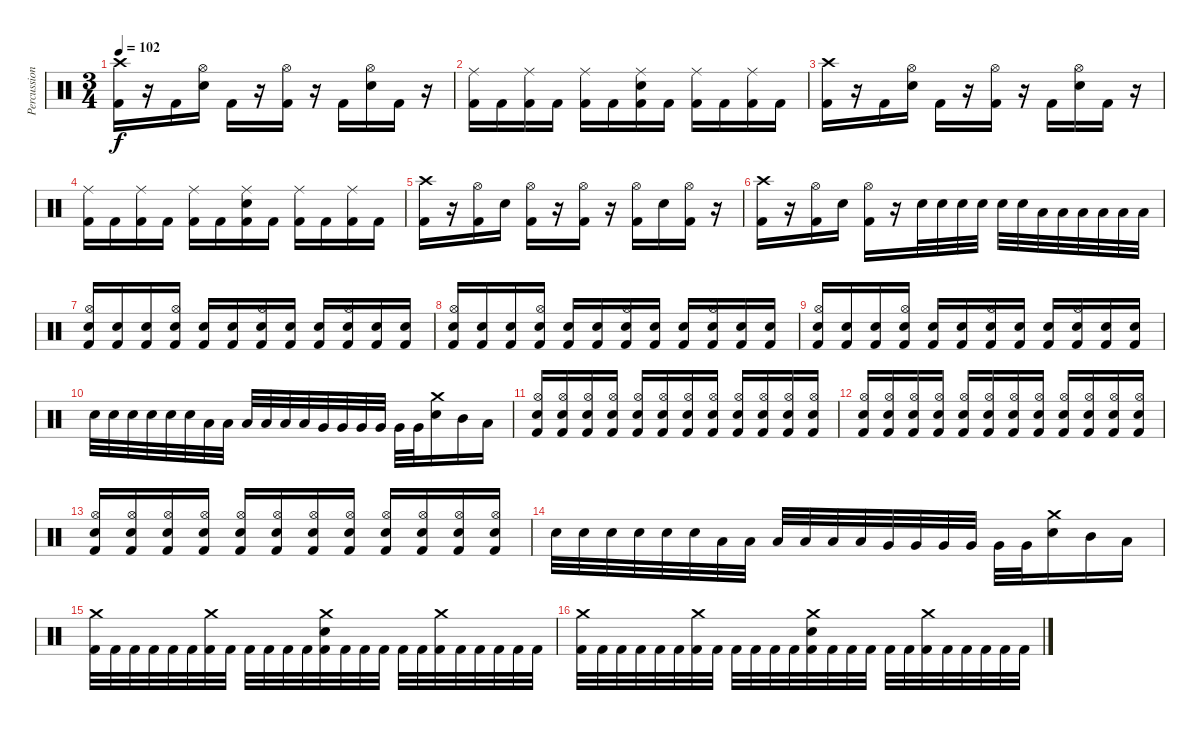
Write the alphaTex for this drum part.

\track ("Percussion" "Percussion") {instrument percussion}
\staff {score}
\articulation defaults
\ts (3 4)
\tempo 102
\clef neutral
\ks c
("Crash high (hit)" "Kick (hit) 2").16{dy f} r.16 "Kick (hit) 2".16 ("Hi-Hat (open)" "Electric Snare (hit)").16 "Kick (hit) 2".16 r.16 ("Hi-Hat (open)" "Kick (hit) 2").16 r.16 "Kick (hit) 2".16 ("Hi-Hat (open)" "Electric Snare (hit)").16 "Kick (hit) 2".16 r.16 |
("Ride (middle)" "Kick (hit) 2").16 "Kick (hit) 2".16 ("Ride (middle)" "Kick (hit) 2").16 "Kick (hit) 2".16 ("Ride (middle)" "Kick (hit) 2").16 "Kick (hit) 2".16 ("Ride (middle)" "Electric Snare (hit)" "Kick (hit) 2").16 "Kick (hit) 2".16 ("Ride (middle)" "Kick (hit) 2").16 "Kick (hit) 2".16 ("Ride (middle)" "Kick (hit) 2").16 "Kick (hit) 2".16 |
("Crash high (hit)" "Kick (hit) 2").16 r.16 "Kick (hit) 2".16 ("Hi-Hat (open)" "Electric Snare (hit)").16 "Kick (hit) 2".16 r.16 ("Hi-Hat (open)" "Kick (hit) 2").16 r.16 "Kick (hit) 2".16 ("Hi-Hat (open)" "Electric Snare (hit)").16 "Kick (hit) 2".16 r.16 |
("Ride (middle)" "Kick (hit) 2").16 "Kick (hit) 2".16 ("Ride (middle)" "Kick (hit) 2").16 "Kick (hit) 2".16 ("Ride (middle)" "Kick (hit) 2").16 "Kick (hit) 2".16 ("Ride (middle)" "Electric Snare (hit)" "Kick (hit) 2").16 "Kick (hit) 2".16 ("Ride (middle)" "Kick (hit) 2").16 "Kick (hit) 2".16 ("Ride (middle)" "Kick (hit) 2").16 "Kick (hit) 2".16 |
("Crash high (hit)" "Kick (hit) 2").16 r.16 ("Hi-Hat (open)" "Kick (hit) 2").16 "Electric Snare (hit)".16 ("Hi-Hat (open)" "Kick (hit) 2").16 r.16 ("Hi-Hat (open)" "Kick (hit) 2").16 r.16 ("Hi-Hat (open)" "Kick (hit) 2").16 "Electric Snare (hit)".16 ("Hi-Hat (open)" "Kick (hit) 2").16 r.16 |
("Crash high (hit)" "Kick (hit) 2").16 r.16 ("Hi-Hat (open)" "Kick (hit) 2").16 "Electric Snare (hit)".16 ("Hi-Hat (open)" "Kick (hit) 2").16 r.16 "Electric Snare (hit)".32 "Electric Snare (hit)".32 "Electric Snare (hit)".32 "Electric Snare (hit)".32 "Electric Snare (hit)".32 "Electric Snare (hit)".32 "Low Tom (hit)".32 "Low Tom (hit)".32 "Low Tom (hit)".32 "Low Tom (hit)".32 "Low Tom (hit)".32 "Low Tom (hit)".32 |
("Hi-Hat (open)" "Electric Snare (hit)" "Kick (hit) 2").16 ("Electric Snare (hit)" "Kick (hit) 2").16 ("Electric Snare (hit)" "Kick (hit) 2").16 ("Hi-Hat (open)" "Electric Snare (hit)" "Kick (hit) 2").16 ("Electric Snare (hit)" "Kick (hit) 2").16 ("Electric Snare (hit)" "Kick (hit) 2").16 ("Hi-Hat (open)" "Electric Snare (hit)" "Kick (hit) 2").16 ("Electric Snare (hit)" "Kick (hit) 2").16 ("Electric Snare (hit)" "Kick (hit) 2").16 ("Hi-Hat (open)" "Electric Snare (hit)" "Kick (hit) 2").16 ("Electric Snare (hit)" "Kick (hit) 2").16 ("Electric Snare (hit)" "Kick (hit) 2").16 |
("Hi-Hat (open)" "Electric Snare (hit)" "Kick (hit) 2").16 ("Electric Snare (hit)" "Kick (hit) 2").16 ("Electric Snare (hit)" "Kick (hit) 2").16 ("Hi-Hat (open)" "Electric Snare (hit)" "Kick (hit) 2").16 ("Electric Snare (hit)" "Kick (hit) 2").16 ("Electric Snare (hit)" "Kick (hit) 2").16 ("Hi-Hat (open)" "Electric Snare (hit)" "Kick (hit) 2").16 ("Electric Snare (hit)" "Kick (hit) 2").16 ("Electric Snare (hit)" "Kick (hit) 2").16 ("Hi-Hat (open)" "Electric Snare (hit)" "Kick (hit) 2").16 ("Electric Snare (hit)" "Kick (hit) 2").16 ("Electric Snare (hit)" "Kick (hit) 2").16 |
("Hi-Hat (open)" "Electric Snare (hit)" "Kick (hit) 2").16 ("Electric Snare (hit)" "Kick (hit) 2").16 ("Electric Snare (hit)" "Kick (hit) 2").16 ("Hi-Hat (open)" "Electric Snare (hit)" "Kick (hit) 2").16 ("Electric Snare (hit)" "Kick (hit) 2").16 ("Electric Snare (hit)" "Kick (hit) 2").16 ("Hi-Hat (open)" "Electric Snare (hit)" "Kick (hit) 2").16 ("Electric Snare (hit)" "Kick (hit) 2").16 ("Electric Snare (hit)" "Kick (hit) 2").16 ("Hi-Hat (open)" "Electric Snare (hit)" "Kick (hit) 2").16 ("Electric Snare (hit)" "Kick (hit) 2").16 ("Electric Snare (hit)" "Kick (hit) 2").16 |
"Electric Snare (hit)".32 "Electric Snare (hit)".32 "Electric Snare (hit)".32 "Electric Snare (hit)".32 "Electric Snare (hit)".32 "Electric Snare (hit)".32 "Low Tom (hit)".32 "Low Tom (hit)".32 "Low Tom (hit)".32 "Low Tom (hit)".32 "Low Tom (hit)".32 "Low Tom (hit)".32 "Very Low Tom (hit)".32 "Very Low Tom (hit)".32 "Very Low Tom (hit)".32 "Very Low Tom (hit)".32 "Very Low Tom (hit)".32 "Very Low Tom (hit)".32 ("Crash medium (hit)" "Electric Snare (hit)").16 "Mid Tom (hit)".16 "Low Tom (hit)".16 |
("Hi-Hat (open)" "Electric Snare (hit)" "Kick (hit) 2").16 ("Hi-Hat (open)" "Electric Snare (hit)" "Kick (hit) 2").16 ("Hi-Hat (open)" "Electric Snare (hit)" "Kick (hit) 2").16 ("Hi-Hat (open)" "Electric Snare (hit)" "Kick (hit) 2").16 ("Hi-Hat (open)" "Electric Snare (hit)" "Kick (hit) 2").16 ("Hi-Hat (open)" "Electric Snare (hit)" "Kick (hit) 2").16 ("Hi-Hat (open)" "Electric Snare (hit)" "Kick (hit) 2").16 ("Hi-Hat (open)" "Electric Snare (hit)" "Kick (hit) 2").16 ("Hi-Hat (open)" "Electric Snare (hit)" "Kick (hit) 2").16 ("Hi-Hat (open)" "Electric Snare (hit)" "Kick (hit) 2").16 ("Hi-Hat (open)" "Electric Snare (hit)" "Kick (hit) 2").16 ("Hi-Hat (open)" "Electric Snare (hit)" "Kick (hit) 2").16 |
("Hi-Hat (open)" "Electric Snare (hit)" "Kick (hit) 2").16 ("Hi-Hat (open)" "Electric Snare (hit)" "Kick (hit) 2").16 ("Hi-Hat (open)" "Electric Snare (hit)" "Kick (hit) 2").16 ("Hi-Hat (open)" "Electric Snare (hit)" "Kick (hit) 2").16 ("Hi-Hat (open)" "Electric Snare (hit)" "Kick (hit) 2").16 ("Hi-Hat (open)" "Electric Snare (hit)" "Kick (hit) 2").16 ("Hi-Hat (open)" "Electric Snare (hit)" "Kick (hit) 2").16 ("Hi-Hat (open)" "Electric Snare (hit)" "Kick (hit) 2").16 ("Hi-Hat (open)" "Electric Snare (hit)" "Kick (hit) 2").16 ("Hi-Hat (open)" "Electric Snare (hit)" "Kick (hit) 2").16 ("Hi-Hat (open)" "Electric Snare (hit)" "Kick (hit) 2").16 ("Hi-Hat (open)" "Electric Snare (hit)" "Kick (hit) 2").16 |
("Hi-Hat (open)" "Electric Snare (hit)" "Kick (hit) 2").16 ("Hi-Hat (open)" "Electric Snare (hit)" "Kick (hit) 2").16 ("Hi-Hat (open)" "Electric Snare (hit)" "Kick (hit) 2").16 ("Hi-Hat (open)" "Electric Snare (hit)" "Kick (hit) 2").16 ("Hi-Hat (open)" "Electric Snare (hit)" "Kick (hit) 2").16 ("Hi-Hat (open)" "Electric Snare (hit)" "Kick (hit) 2").16 ("Hi-Hat (open)" "Electric Snare (hit)" "Kick (hit) 2").16 ("Hi-Hat (open)" "Electric Snare (hit)" "Kick (hit) 2").16 ("Hi-Hat (open)" "Electric Snare (hit)" "Kick (hit) 2").16 ("Hi-Hat (open)" "Electric Snare (hit)" "Kick (hit) 2").16 ("Hi-Hat (open)" "Electric Snare (hit)" "Kick (hit) 2").16 ("Hi-Hat (open)" "Electric Snare (hit)" "Kick (hit) 2").16 |
"Electric Snare (hit)".32 "Electric Snare (hit)".32 "Electric Snare (hit)".32 "Electric Snare (hit)".32 "Electric Snare (hit)".32 "Electric Snare (hit)".32 "Low Tom (hit)".32 "Low Tom (hit)".32 "Low Tom (hit)".32 "Low Tom (hit)".32 "Low Tom (hit)".32 "Low Tom (hit)".32 "Very Low Tom (hit)".32 "Very Low Tom (hit)".32 "Very Low Tom (hit)".32 "Very Low Tom (hit)".32 "Very Low Tom (hit)".32 "Very Low Tom (hit)".32 ("Crash medium (hit)" "Electric Snare (hit)").16 "Mid Tom (hit)".16 "Low Tom (hit)".16 |
("Crash medium (hit)" "Kick (hit) 2").32 "Kick (hit) 2".32 "Kick (hit) 2".32 "Kick (hit) 2".32 "Kick (hit) 2".32 "Kick (hit) 2".32 ("Crash medium (hit)" "Kick (hit) 2").32 "Kick (hit) 2".32 "Kick (hit) 2".32 "Kick (hit) 2".32 "Kick (hit) 2".32 "Kick (hit) 2".32 ("Crash medium (hit)" "Electric Snare (hit)" "Kick (hit) 2").32 "Kick (hit) 2".32 "Kick (hit) 2".32 "Kick (hit) 2".32 "Kick (hit) 2".32 "Kick (hit) 2".32 ("Crash medium (hit)" "Kick (hit) 2").32 "Kick (hit) 2".32 "Kick (hit) 2".32 "Kick (hit) 2".32 "Kick (hit) 2".32 "Kick (hit) 2".32 |
("Crash medium (hit)" "Kick (hit) 2").32 "Kick (hit) 2".32 "Kick (hit) 2".32 "Kick (hit) 2".32 "Kick (hit) 2".32 "Kick (hit) 2".32 ("Crash medium (hit)" "Kick (hit) 2").32 "Kick (hit) 2".32 "Kick (hit) 2".32 "Kick (hit) 2".32 "Kick (hit) 2".32 "Kick (hit) 2".32 ("Crash medium (hit)" "Electric Snare (hit)" "Kick (hit) 2").32 "Kick (hit) 2".32 "Kick (hit) 2".32 "Kick (hit) 2".32 "Kick (hit) 2".32 "Kick (hit) 2".32 ("Crash medium (hit)" "Kick (hit) 2").32 "Kick (hit) 2".32 "Kick (hit) 2".32 "Kick (hit) 2".32 "Kick (hit) 2".32 "Kick (hit) 2".32
